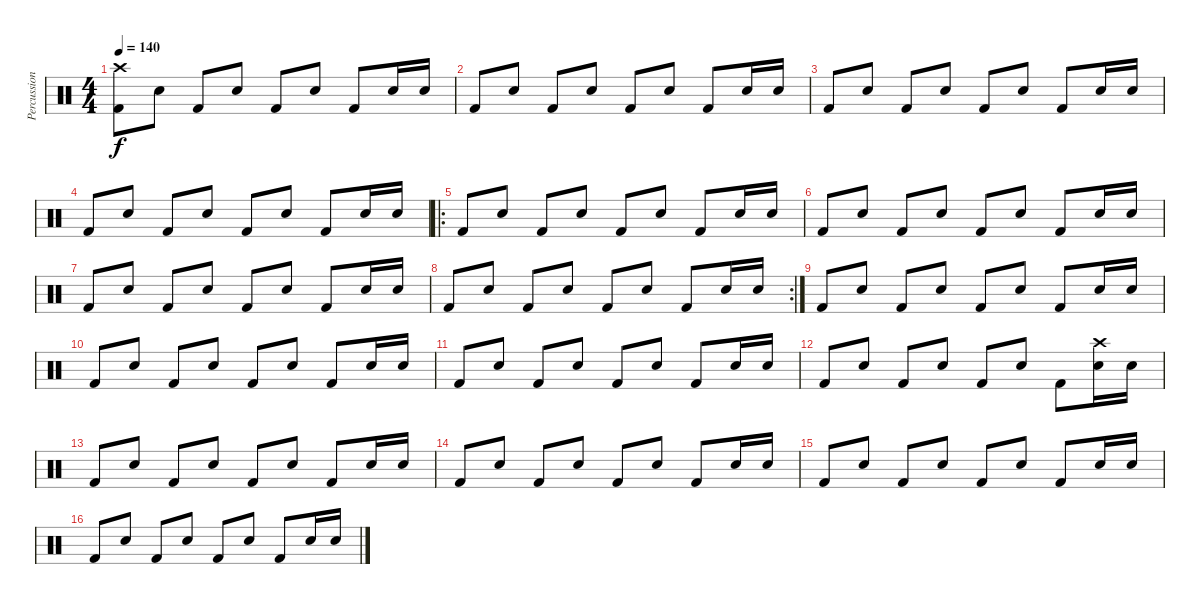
\track ("Percussions" "Percussion") {instrument percussion}
\staff {score}
\articulation defaults
\ts (4 4)
\tempo 140
\clef neutral
\ks c
("Crash high (hit)" "Kick (hit) 2").8{dy f} "Snare (hit) 2".8 "Kick (hit) 2".8 "Snare (hit) 2".8 "Kick (hit) 2".8 "Snare (hit) 2".8 "Kick (hit) 2".8 "Snare (hit) 2".16 "Snare (hit) 2".16 |
"Kick (hit) 2".8 "Snare (hit) 2".8 "Kick (hit) 2".8 "Snare (hit) 2".8 "Kick (hit) 2".8 "Snare (hit) 2".8 "Kick (hit) 2".8 "Snare (hit) 2".16 "Snare (hit) 2".16 |
"Kick (hit) 2".8 "Snare (hit) 2".8 "Kick (hit) 2".8 "Snare (hit) 2".8 "Kick (hit) 2".8 "Snare (hit) 2".8 "Kick (hit) 2".8 "Snare (hit) 2".16 "Snare (hit) 2".16 |
"Kick (hit) 2".8 "Snare (hit) 2".8 "Kick (hit) 2".8 "Snare (hit) 2".8 "Kick (hit) 2".8 "Snare (hit) 2".8 "Kick (hit) 2".8 "Snare (hit) 2".16 "Snare (hit) 2".16 |
\ro "Kick (hit) 2".8 "Snare (hit) 2".8 "Kick (hit) 2".8 "Snare (hit) 2".8 "Kick (hit) 2".8 "Snare (hit) 2".8 "Kick (hit) 2".8 "Snare (hit) 2".16 "Snare (hit) 2".16
|
"Kick (hit) 2".8 "Snare (hit) 2".8 "Kick (hit) 2".8 "Snare (hit) 2".8 "Kick (hit) 2".8 "Snare (hit) 2".8 "Kick (hit) 2".8 "Snare (hit) 2".16 "Snare (hit) 2".16 |
"Kick (hit) 2".8 "Snare (hit) 2".8 "Kick (hit) 2".8 "Snare (hit) 2".8 "Kick (hit) 2".8 "Snare (hit) 2".8 "Kick (hit) 2".8 "Snare (hit) 2".16 "Snare (hit) 2".16 |
\rc 2 "Kick (hit) 2".8 "Snare (hit) 2".8 "Kick (hit) 2".8 "Snare (hit) 2".8 "Kick (hit) 2".8 "Snare (hit) 2".8 "Kick (hit) 2".8 "Snare (hit) 2".16 "Snare (hit) 2".16
|
"Kick (hit) 2".8 "Snare (hit) 2".8 "Kick (hit) 2".8 "Snare (hit) 2".8 "Kick (hit) 2".8 "Snare (hit) 2".8 "Kick (hit) 2".8 "Snare (hit) 2".16 "Snare (hit) 2".16 |
"Kick (hit) 2".8 "Snare (hit) 2".8 "Kick (hit) 2".8 "Snare (hit) 2".8 "Kick (hit) 2".8 "Snare (hit) 2".8 "Kick (hit) 2".8 "Snare (hit) 2".16 "Snare (hit) 2".16 |
"Kick (hit) 2".8 "Snare (hit) 2".8 "Kick (hit) 2".8 "Snare (hit) 2".8 "Kick (hit) 2".8 "Snare (hit) 2".8 "Kick (hit) 2".8 "Snare (hit) 2".16 "Snare (hit) 2".16 |
"Kick (hit) 2".8 "Snare (hit) 2".8 "Kick (hit) 2".8 "Snare (hit) 2".8 "Kick (hit) 2".8 "Snare (hit) 2".8 "Kick (hit) 2".8 ("Crash high (hit)" "Snare (hit) 2").16 "Snare (hit) 2".16 |
"Kick (hit) 2".8 "Snare (hit) 2".8 "Kick (hit) 2".8 "Snare (hit) 2".8 "Kick (hit) 2".8 "Snare (hit) 2".8 "Kick (hit) 2".8 "Snare (hit) 2".16 "Snare (hit) 2".16 |
"Kick (hit) 2".8 "Snare (hit) 2".8 "Kick (hit) 2".8 "Snare (hit) 2".8 "Kick (hit) 2".8 "Snare (hit) 2".8 "Kick (hit) 2".8 "Snare (hit) 2".16 "Snare (hit) 2".16 |
"Kick (hit) 2".8 "Snare (hit) 2".8 "Kick (hit) 2".8 "Snare (hit) 2".8 "Kick (hit) 2".8 "Snare (hit) 2".8 "Kick (hit) 2".8 "Snare (hit) 2".16 "Snare (hit) 2".16 |
"Kick (hit) 2".8 "Snare (hit) 2".8 "Kick (hit) 2".8 "Snare (hit) 2".8 "Kick (hit) 2".8 "Snare (hit) 2".8 "Kick (hit) 2".8 "Snare (hit) 2".16 "Snare (hit) 2".16
